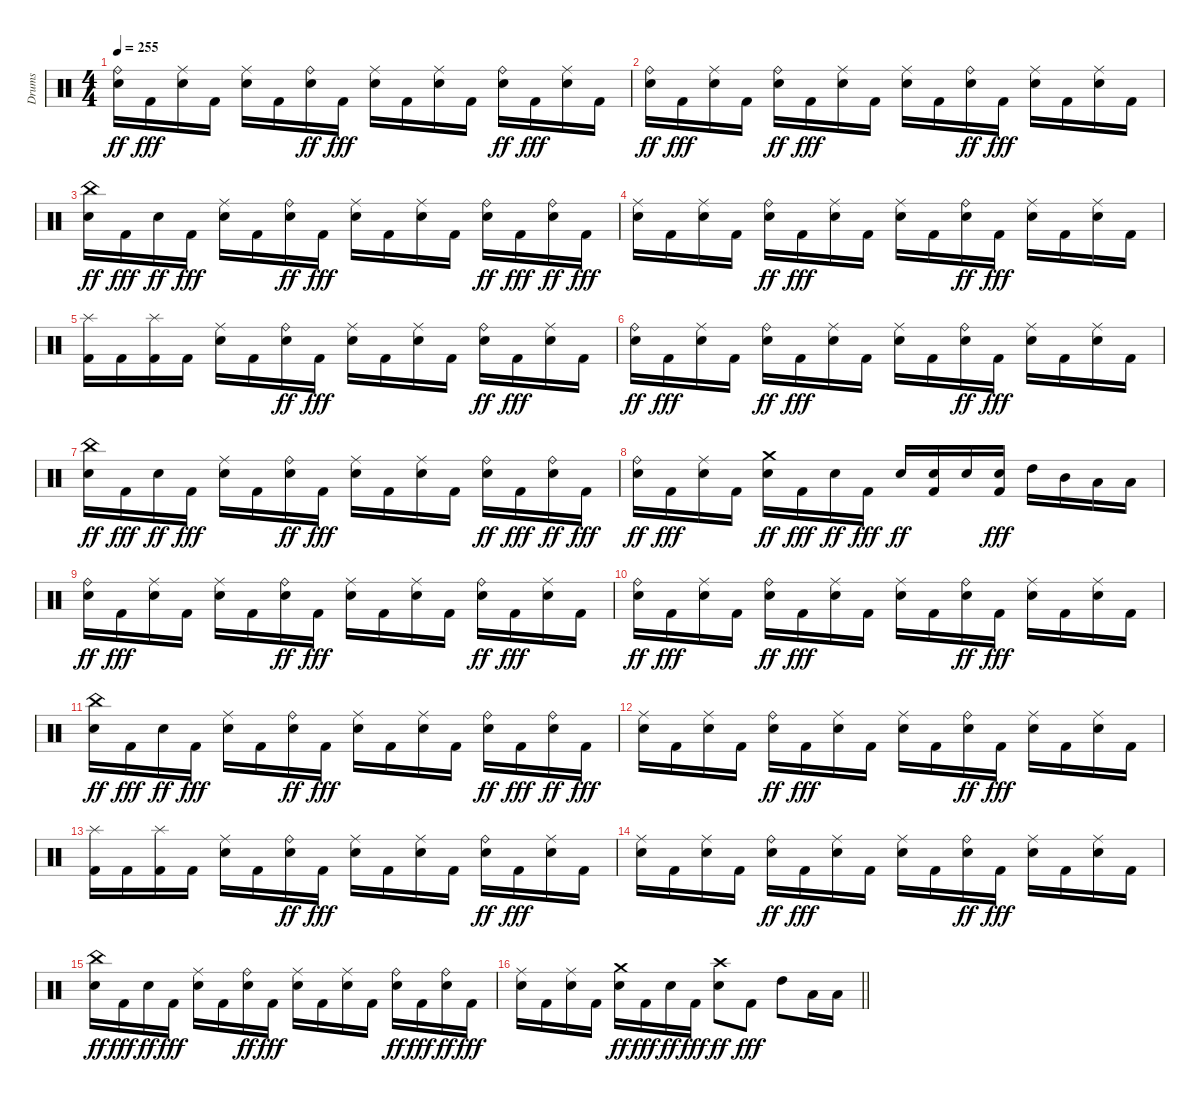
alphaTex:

\track ("Drums" "Drums") {instrument percussion}
\staff {score}
\articulation defaults
\ts (4 4)
\tempo 255
\clef neutral
\ks c
("Snare (hit) 2" "Ride (bell)").16{dy ff} "Kick (hit) 2".16{dy fff} ("Snare (hit) 2" "Ride (middle)").16 "Kick (hit) 2".16 ("Snare (hit) 2" "Ride (middle)").16 "Kick (hit) 2".16 ("Snare (hit) 2" "Ride (bell)").16{dy ff} "Kick (hit) 2".16{dy fff} ("Snare (hit) 2" "Ride (middle)").16 "Kick (hit) 2".16 ("Snare (hit) 2" "Ride (middle)").16 "Kick (hit) 2".16 ("Snare (hit) 2" "Ride (bell)").16{dy ff} "Kick (hit) 2".16{dy fff} ("Snare (hit) 2" "Ride (middle)").16 "Kick (hit) 2".16 |
("Snare (hit) 2" "Ride (bell)").16{dy ff} "Kick (hit) 2".16{dy fff} ("Snare (hit) 2" "Ride (middle)").16 "Kick (hit) 2".16 ("Snare (hit) 2" "Ride (bell)").16{dy ff} "Kick (hit) 2".16{dy fff} ("Snare (hit) 2" "Ride (middle)").16 "Kick (hit) 2".16 ("Snare (hit) 2" "Ride (middle)").16 "Kick (hit) 2".16 ("Snare (hit) 2" "Ride (bell)").16{dy ff} "Kick (hit) 2".16{dy fff} ("Snare (hit) 2" "Ride (middle)").16 "Kick (hit) 2".16 ("Snare (hit) 2" "Ride (middle)").16 "Kick (hit) 2".16 |
("Snare (hit) 2" "China (hit)").16{dy ff} "Kick (hit) 2".16{dy fff} "Snare (hit) 2".16{dy ff} "Kick (hit) 2".16{dy fff} ("Snare (hit) 2" "Ride (middle)").16 "Kick (hit) 2".16 ("Snare (hit) 2" "Ride (bell)").16{dy ff} "Kick (hit) 2".16{dy fff} ("Snare (hit) 2" "Ride (middle)").16 "Kick (hit) 2".16 ("Snare (hit) 2" "Ride (middle)").16 "Kick (hit) 2".16 ("Snare (hit) 2" "Ride (bell)").16{dy ff} "Kick (hit) 2".16{dy fff} ("Snare (hit) 2" "Ride (bell)").16{dy ff} "Kick (hit) 2".16{dy fff} |
("Snare (hit) 2" "Ride (middle)").16 "Kick (hit) 2".16 ("Snare (hit) 2" "Ride (middle)").16 "Kick (hit) 2".16 ("Snare (hit) 2" "Ride (bell)").16{dy ff} "Kick (hit) 2".16{dy fff} ("Snare (hit) 2" "Ride (middle)").16 "Kick (hit) 2".16 ("Snare (hit) 2" "Ride (middle)").16 "Kick (hit) 2".16 ("Snare (hit) 2" "Ride (bell)").16{dy ff} "Kick (hit) 2".16{dy fff} ("Snare (hit) 2" "Ride (middle)").16 "Kick (hit) 2".16 ("Snare (hit) 2" "Ride (middle)").16 "Kick (hit) 2".16 |
("Kick (hit) 2" "Splash (hit)").16 "Kick (hit) 2".16 ("Kick (hit) 2" "Splash (hit)").16 "Kick (hit) 2".16 ("Snare (hit) 2" "Ride (middle)").16 "Kick (hit) 2".16 ("Snare (hit) 2" "Ride (bell)").16{dy ff} "Kick (hit) 2".16{dy fff} ("Snare (hit) 2" "Ride (middle)").16 "Kick (hit) 2".16 ("Snare (hit) 2" "Ride (middle)").16 "Kick (hit) 2".16 ("Snare (hit) 2" "Ride (bell)").16{dy ff} "Kick (hit) 2".16{dy fff} ("Snare (hit) 2" "Ride (middle)").16 "Kick (hit) 2".16 |
("Snare (hit) 2" "Ride (bell)").16{dy ff} "Kick (hit) 2".16{dy fff} ("Snare (hit) 2" "Ride (middle)").16 "Kick (hit) 2".16 ("Snare (hit) 2" "Ride (bell)").16{dy ff} "Kick (hit) 2".16{dy fff} ("Snare (hit) 2" "Ride (middle)").16 "Kick (hit) 2".16 ("Snare (hit) 2" "Ride (middle)").16 "Kick (hit) 2".16 ("Snare (hit) 2" "Ride (bell)").16{dy ff} "Kick (hit) 2".16{dy fff} ("Snare (hit) 2" "Ride (middle)").16 "Kick (hit) 2".16 ("Snare (hit) 2" "Ride (middle)").16 "Kick (hit) 2".16 |
("Snare (hit) 2" "China (hit)").16{dy ff} "Kick (hit) 2".16{dy fff} "Snare (hit) 2".16{dy ff} "Kick (hit) 2".16{dy fff} ("Snare (hit) 2" "Ride (middle)").16 "Kick (hit) 2".16 ("Snare (hit) 2" "Ride (bell)").16{dy ff} "Kick (hit) 2".16{dy fff} ("Snare (hit) 2" "Ride (middle)").16 "Kick (hit) 2".16 ("Snare (hit) 2" "Ride (middle)").16 "Kick (hit) 2".16 ("Snare (hit) 2" "Ride (bell)").16{dy ff} "Kick (hit) 2".16{dy fff} ("Snare (hit) 2" "Ride (bell)").16{dy ff} "Kick (hit) 2".16{dy fff} |
("Snare (hit) 2" "Ride (bell)").16{dy ff} "Kick (hit) 2".16{dy fff} ("Snare (hit) 2" "Ride (middle)").16 "Kick (hit) 2".16 ("Snare (hit) 2" "Crash medium (hit)").16{dy ff} "Kick (hit) 2".16{dy fff} "Snare (hit) 2".16{dy ff} "Kick (hit) 2".16{dy fff} "Snare (hit) 2".16{dy ff} ("Kick (hit) 2" "Snare (hit) 2").16 "Snare (hit) 2".16 ("Kick (hit) 2" "Snare (hit) 2").16{dy fff} "High Tom (hit)".16 "Mid Tom (hit)".16 "Low Tom (hit)".16 "Low Tom (hit)".16 |
("Snare (hit) 2" "Ride (bell)").16{dy ff} "Kick (hit) 2".16{dy fff} ("Snare (hit) 2" "Ride (middle)").16 "Kick (hit) 2".16 ("Snare (hit) 2" "Ride (middle)").16 "Kick (hit) 2".16 ("Snare (hit) 2" "Ride (bell)").16{dy ff} "Kick (hit) 2".16{dy fff} ("Snare (hit) 2" "Ride (middle)").16 "Kick (hit) 2".16 ("Snare (hit) 2" "Ride (middle)").16 "Kick (hit) 2".16 ("Snare (hit) 2" "Ride (bell)").16{dy ff} "Kick (hit) 2".16{dy fff} ("Snare (hit) 2" "Ride (middle)").16 "Kick (hit) 2".16 |
("Snare (hit) 2" "Ride (bell)").16{dy ff} "Kick (hit) 2".16{dy fff} ("Snare (hit) 2" "Ride (middle)").16 "Kick (hit) 2".16 ("Snare (hit) 2" "Ride (bell)").16{dy ff} "Kick (hit) 2".16{dy fff} ("Snare (hit) 2" "Ride (middle)").16 "Kick (hit) 2".16 ("Snare (hit) 2" "Ride (middle)").16 "Kick (hit) 2".16 ("Snare (hit) 2" "Ride (bell)").16{dy ff} "Kick (hit) 2".16{dy fff} ("Snare (hit) 2" "Ride (middle)").16 "Kick (hit) 2".16 ("Snare (hit) 2" "Ride (middle)").16 "Kick (hit) 2".16 |
("Snare (hit) 2" "China (hit)").16{dy ff} "Kick (hit) 2".16{dy fff} "Snare (hit) 2".16{dy ff} "Kick (hit) 2".16{dy fff} ("Snare (hit) 2" "Ride (middle)").16 "Kick (hit) 2".16 ("Snare (hit) 2" "Ride (bell)").16{dy ff} "Kick (hit) 2".16{dy fff} ("Snare (hit) 2" "Ride (middle)").16 "Kick (hit) 2".16 ("Snare (hit) 2" "Ride (middle)").16 "Kick (hit) 2".16 ("Snare (hit) 2" "Ride (bell)").16{dy ff} "Kick (hit) 2".16{dy fff} ("Snare (hit) 2" "Ride (bell)").16{dy ff} "Kick (hit) 2".16{dy fff} |
("Snare (hit) 2" "Ride (middle)").16 "Kick (hit) 2".16 ("Snare (hit) 2" "Ride (middle)").16 "Kick (hit) 2".16 ("Snare (hit) 2" "Ride (bell)").16{dy ff} "Kick (hit) 2".16{dy fff} ("Snare (hit) 2" "Ride (middle)").16 "Kick (hit) 2".16 ("Snare (hit) 2" "Ride (middle)").16 "Kick (hit) 2".16 ("Snare (hit) 2" "Ride (bell)").16{dy ff} "Kick (hit) 2".16{dy fff} ("Snare (hit) 2" "Ride (middle)").16 "Kick (hit) 2".16 ("Snare (hit) 2" "Ride (middle)").16 "Kick (hit) 2".16 |
("Kick (hit) 2" "Splash (hit)").16 "Kick (hit) 2".16 ("Kick (hit) 2" "Splash (hit)").16 "Kick (hit) 2".16 ("Snare (hit) 2" "Ride (middle)").16 "Kick (hit) 2".16 ("Snare (hit) 2" "Ride (bell)").16{dy ff} "Kick (hit) 2".16{dy fff} ("Snare (hit) 2" "Ride (middle)").16 "Kick (hit) 2".16 ("Snare (hit) 2" "Ride (middle)").16 "Kick (hit) 2".16 ("Snare (hit) 2" "Ride (bell)").16{dy ff} "Kick (hit) 2".16{dy fff} ("Snare (hit) 2" "Ride (middle)").16 "Kick (hit) 2".16 |
("Snare (hit) 2" "Ride (middle)").16 "Kick (hit) 2".16 ("Snare (hit) 2" "Ride (middle)").16 "Kick (hit) 2".16 ("Snare (hit) 2" "Ride (bell)").16{dy ff} "Kick (hit) 2".16{dy fff} ("Snare (hit) 2" "Ride (middle)").16 "Kick (hit) 2".16 ("Snare (hit) 2" "Ride (middle)").16 "Kick (hit) 2".16 ("Snare (hit) 2" "Ride (bell)").16{dy ff} "Kick (hit) 2".16{dy fff} ("Snare (hit) 2" "Ride (middle)").16 "Kick (hit) 2".16 ("Snare (hit) 2" "Ride (middle)").16 "Kick (hit) 2".16 |
("Snare (hit) 2" "China (hit)").16{dy ff} "Kick (hit) 2".16{dy fff} "Snare (hit) 2".16{dy ff} "Kick (hit) 2".16{dy fff} ("Snare (hit) 2" "Ride (middle)").16 "Kick (hit) 2".16 ("Snare (hit) 2" "Ride (bell)").16{dy ff} "Kick (hit) 2".16{dy fff} ("Snare (hit) 2" "Ride (middle)").16 "Kick (hit) 2".16 ("Snare (hit) 2" "Ride (middle)").16 "Kick (hit) 2".16 ("Snare (hit) 2" "Ride (bell)").16{dy ff} "Kick (hit) 2".16{dy fff} ("Snare (hit) 2" "Ride (bell)").16{dy ff} "Kick (hit) 2".16{dy fff} |
\barLineRight lightlight
("Snare (hit) 2" "Ride (middle)").16 "Kick (hit) 2".16 ("Snare (hit) 2" "Ride (middle)").16 "Kick (hit) 2".16 ("Snare (hit) 2" "Crash medium (hit)").16{dy ff} "Kick (hit) 2".16{dy fff} "Snare (hit) 2".16{dy ff} "Kick (hit) 2".16{dy fff} ("Snare (hit) 2" "Crash high (hit)").8{dy ff} "Kick (hit) 2".8{dy fff} "High Tom (hit)".8 "Low Tom (hit)".16 "Low Tom (hit)".16
